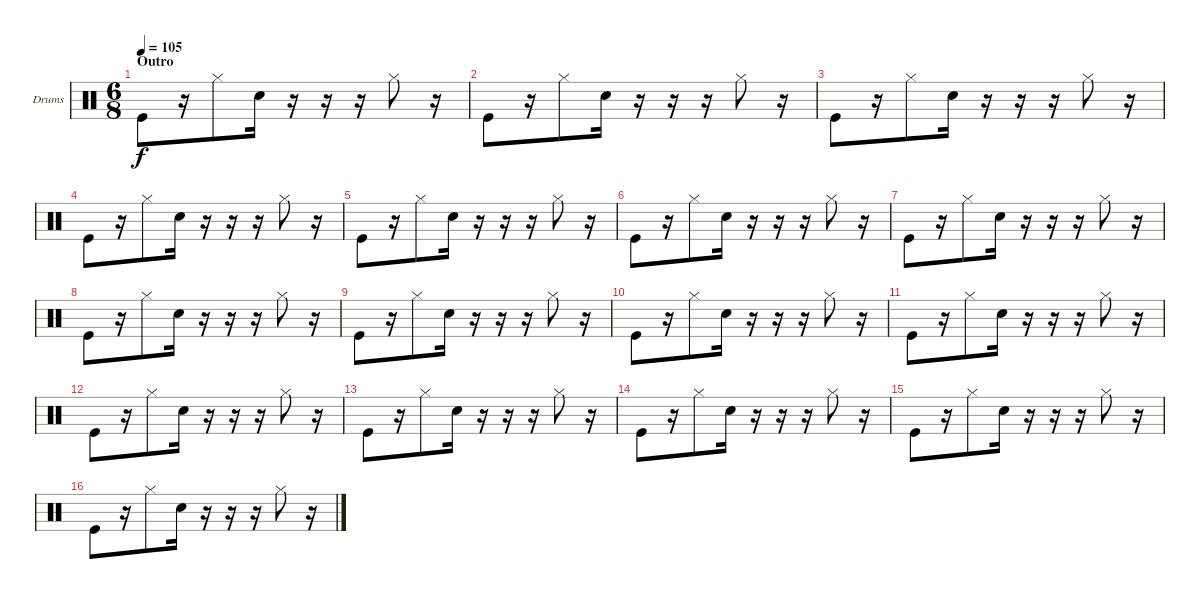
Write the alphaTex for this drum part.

\defaultSystemsLayout 4
\bracketExtendMode nobrackets
\firstSystemTrackNameOrientation horizontal
\otherSystemsTrackNameOrientation horizontal
\track ("Drumkit" "Drums") {instrument percussion}
\staff {score}
\articulation defaults
\ts (6 8)
\section ("" "Outro")
\tempo 105
\clef neutral
\ks c "Kick (hit)".8{dy f}
r.16 "Hi-Hat (closed)".8 "Snare (hit) 2".16 r.16 r.16 r.16 "Hi-Hat (closed)".8 r.16 |
"Kick (hit)".8 r.16 "Hi-Hat (closed)".8 "Snare (hit) 2".16 r.16 r.16 r.16 "Hi-Hat (closed)".8 r.16 |
"Kick (hit)".8 r.16 "Hi-Hat (closed)".8 "Snare (hit) 2".16 r.16 r.16 r.16 "Hi-Hat (closed)".8 r.16 |
"Kick (hit)".8 r.16 "Hi-Hat (closed)".8 "Snare (hit) 2".16 r.16 r.16 r.16 "Hi-Hat (closed)".8 r.16 |
"Kick (hit)".8 r.16 "Hi-Hat (closed)".8 "Snare (hit) 2".16 r.16 r.16 r.16 "Hi-Hat (closed)".8 r.16 |
"Kick (hit)".8 r.16 "Hi-Hat (closed)".8 "Snare (hit) 2".16 r.16 r.16 r.16 "Hi-Hat (closed)".8 r.16 |
"Kick (hit)".8 r.16 "Hi-Hat (closed)".8 "Snare (hit) 2".16 r.16 r.16 r.16 "Hi-Hat (closed)".8 r.16 |
"Kick (hit)".8 r.16 "Hi-Hat (closed)".8 "Snare (hit) 2".16 r.16 r.16 r.16 "Hi-Hat (closed)".8 r.16 |
"Kick (hit)".8 r.16 "Hi-Hat (closed)".8 "Snare (hit) 2".16 r.16 r.16 r.16 "Hi-Hat (closed)".8 r.16 |
"Kick (hit)".8 r.16 "Hi-Hat (closed)".8 "Snare (hit) 2".16 r.16 r.16 r.16 "Hi-Hat (closed)".8 r.16 |
"Kick (hit)".8 r.16 "Hi-Hat (closed)".8 "Snare (hit) 2".16 r.16 r.16 r.16 "Hi-Hat (closed)".8 r.16 |
"Kick (hit)".8 r.16 "Hi-Hat (closed)".8 "Snare (hit) 2".16 r.16 r.16 r.16 "Hi-Hat (closed)".8 r.16 |
"Kick (hit)".8 r.16 "Hi-Hat (closed)".8 "Snare (hit) 2".16 r.16 r.16 r.16 "Hi-Hat (closed)".8 r.16 |
"Kick (hit)".8 r.16 "Hi-Hat (closed)".8 "Snare (hit) 2".16 r.16 r.16 r.16 "Hi-Hat (closed)".8 r.16 |
"Kick (hit)".8 r.16 "Hi-Hat (closed)".8 "Snare (hit) 2".16 r.16 r.16 r.16 "Hi-Hat (closed)".8 r.16 |
"Kick (hit)".8 r.16 "Hi-Hat (closed)".8 "Snare (hit) 2".16 r.16 r.16 r.16 "Hi-Hat (closed)".8 r.16
